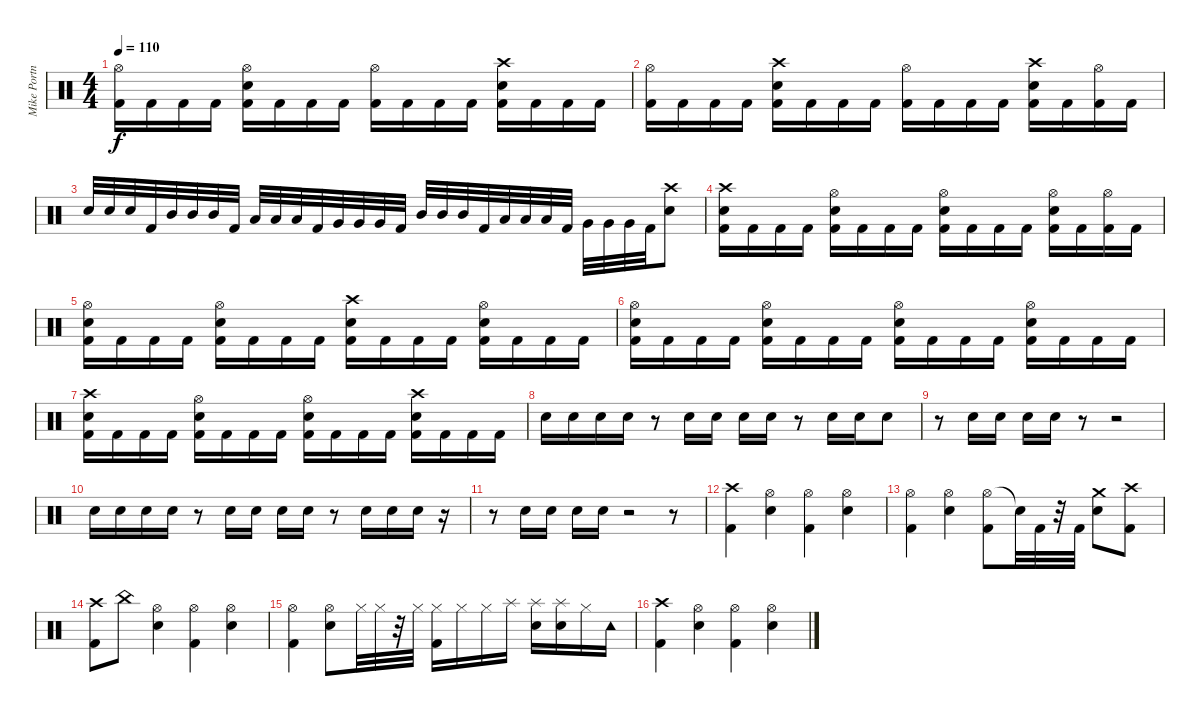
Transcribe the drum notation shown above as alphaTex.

\track ("Mike Portnoy - Drums" "Mike Portn") {instrument percussion}
\staff {score}
\articulation defaults
\ts (4 4)
\tempo 110
\clef neutral
\ks c
("Hi-Hat (open)" "Kick (hit) 2").16{dy f} "Kick (hit) 2".16 "Kick (hit) 2".16 "Kick (hit) 2".16 ("Hi-Hat (open)" "Electric Snare (hit)" "Kick (hit) 2").16 "Kick (hit) 2".16 "Kick (hit) 2".16 "Kick (hit) 2".16 ("Hi-Hat (open)" "Kick (hit) 2").16 "Kick (hit) 2".16 "Kick (hit) 2".16 "Kick (hit) 2".16 ("Crash high (hit)" "Electric Snare (hit)" "Kick (hit) 2").16 "Kick (hit) 2".16 "Kick (hit) 2".16 "Kick (hit) 2".16 |
("Hi-Hat (open)" "Kick (hit) 2").16 "Kick (hit) 2".16 "Kick (hit) 2".16 "Kick (hit) 2".16 ("Crash high (hit)" "Electric Snare (hit)" "Kick (hit) 2").16 "Kick (hit) 2".16 "Kick (hit) 2".16 "Kick (hit) 2".16 ("Hi-Hat (open)" "Kick (hit) 2").16 "Kick (hit) 2".16 "Kick (hit) 2".16 "Kick (hit) 2".16 ("Crash high (hit)" "Electric Snare (hit)" "Kick (hit) 2").16 "Kick (hit) 2".16 ("Hi-Hat (open)" "Kick (hit) 2").16 "Kick (hit) 2".16 |
"Electric Snare (hit)".32 "Electric Snare (hit)".32 "Electric Snare (hit)".32 "Kick (hit) 2".32 "Mid Tom (hit)".32 "Mid Tom (hit)".32 "Mid Tom (hit)".32 "Kick (hit) 2".32 "Low Tom (hit)".32 "Low Tom (hit)".32 "Low Tom (hit)".32 "Kick (hit) 2".32 "Very Low Tom (hit)".32 "Very Low Tom (hit)".32 "Very Low Tom (hit)".32 "Kick (hit) 2".32 "Mid Tom (hit)".32 "Mid Tom (hit)".32 "Mid Tom (hit)".32 "Kick (hit) 2".32 "Low Tom (hit)".32 "Low Tom (hit)".32 "Low Tom (hit)".32 "Kick (hit) 2".32 "Very Low Tom (hit)".32 "Very Low Tom (hit)".32 "Very Low Tom (hit)".32 "Kick (hit) 2".32 ("Crash high (hit)" "Electric Snare (hit)").8 |
("Crash high (hit)" "Electric Snare (hit)" "Kick (hit) 2").16 "Kick (hit) 2".16 "Kick (hit) 2".16 "Kick (hit) 2".16 ("Hi-Hat (open)" "Electric Snare (hit)" "Kick (hit) 2").16 "Kick (hit) 2".16 "Kick (hit) 2".16 "Kick (hit) 2".16 ("Hi-Hat (open)" "Electric Snare (hit)" "Kick (hit) 2").16 "Kick (hit) 2".16 "Kick (hit) 2".16 "Kick (hit) 2".16 ("Hi-Hat (open)" "Electric Snare (hit)" "Kick (hit) 2").16 "Kick (hit) 2".16 ("Hi-Hat (open)" "Kick (hit) 2").16 "Kick (hit) 2".16 |
("Hi-Hat (open)" "Electric Snare (hit)" "Kick (hit) 2").16 "Kick (hit) 2".16 "Kick (hit) 2".16 "Kick (hit) 2".16 ("Hi-Hat (open)" "Electric Snare (hit)" "Kick (hit) 2").16 "Kick (hit) 2".16 "Kick (hit) 2".16 "Kick (hit) 2".16 ("Crash high (hit)" "Electric Snare (hit)" "Kick (hit) 2").16 "Kick (hit) 2".16 "Kick (hit) 2".16 "Kick (hit) 2".16 ("Hi-Hat (open)" "Electric Snare (hit)" "Kick (hit) 2").16 "Kick (hit) 2".16 "Kick (hit) 2".16 "Kick (hit) 2".16 |
("Hi-Hat (open)" "Electric Snare (hit)" "Kick (hit) 2").16 "Kick (hit) 2".16 "Kick (hit) 2".16 "Kick (hit) 2".16 ("Hi-Hat (open)" "Electric Snare (hit)" "Kick (hit) 2").16 "Kick (hit) 2".16 "Kick (hit) 2".16 "Kick (hit) 2".16 ("Hi-Hat (open)" "Electric Snare (hit)" "Kick (hit) 2").16 "Kick (hit) 2".16 "Kick (hit) 2".16 "Kick (hit) 2".16 ("Hi-Hat (open)" "Electric Snare (hit)" "Kick (hit) 2").16 "Kick (hit) 2".16 "Kick (hit) 2".16 "Kick (hit) 2".16 |
("Crash high (hit)" "Electric Snare (hit)" "Kick (hit) 2").16 "Kick (hit) 2".16 "Kick (hit) 2".16 "Kick (hit) 2".16 ("Hi-Hat (open)" "Electric Snare (hit)" "Kick (hit) 2").16 "Kick (hit) 2".16 "Kick (hit) 2".16 "Kick (hit) 2".16 ("Hi-Hat (open)" "Electric Snare (hit)" "Kick (hit) 2").16 "Kick (hit) 2".16 "Kick (hit) 2".16 "Kick (hit) 2".16 ("Crash high (hit)" "Electric Snare (hit)" "Kick (hit) 2").16 "Kick (hit) 2".16 "Kick (hit) 2".16 "Kick (hit) 2".16 |
"Electric Snare (hit)".16 "Electric Snare (hit)".16 "Electric Snare (hit)".16 "Electric Snare (hit)".16 r.8 "Electric Snare (hit)".16 "Electric Snare (hit)".16 "Electric Snare (hit)".16 "Electric Snare (hit)".16 r.8 "Electric Snare (hit)".16 "Electric Snare (hit)".16 "Electric Snare (hit)".8 |
r.8 "Electric Snare (hit)".16 "Electric Snare (hit)".16 "Electric Snare (hit)".16 "Electric Snare (hit)".16 r.8 r.2 |
"Electric Snare (hit)".16 "Electric Snare (hit)".16 "Electric Snare (hit)".16 "Electric Snare (hit)".16 r.8 "Electric Snare (hit)".16 "Electric Snare (hit)".16 "Electric Snare (hit)".16 "Electric Snare (hit)".16 r.8 "Electric Snare (hit)".16 "Electric Snare (hit)".16 "Electric Snare (hit)".16 r.16 |
r.8 "Electric Snare (hit)".16 "Electric Snare (hit)".16 "Electric Snare (hit)".16 "Electric Snare (hit)".16 r.2 r.8 |
("Kick (hit) 2" "Crash high (hit)").4 ("Electric Snare (hit)" "Hi-Hat (open)").4 ("Kick (hit) 2" "Hi-Hat (open)").4 ("Electric Snare (hit)" "Hi-Hat (open)").4 |
("Kick (hit) 2" "Hi-Hat (open)").4 ("Electric Snare (hit)" "Hi-Hat (open)").4 ("Hi-Hat (open)" "Kick (hit) 2").8 "Snare (hit)"{t}.32 "Kick (hit) 2".32 r.32 "Kick (hit) 2".32 ("Electric Snare (hit)" "Crash medium (hit)").8 ("Kick (hit) 2" "Crash high (hit)").8 |
("Crash high (hit)" "Kick (hit) 2").8 "China (hit)".8 ("Electric Snare (hit)" "Hi-Hat (open)").4 ("Kick (hit) 2" "Hi-Hat (open)").4 ("Electric Snare (hit)" "Hi-Hat (open)").4 |
("Kick (hit) 2" "Hi-Hat (open)").4 ("Electric Snare (hit)" "Hi-Hat (open)").8 "Hi-Hat (closed)".32 "Hi-Hat (closed)".32 r.32 "Hi-Hat (closed)".32 ("Kick (hit) 2" "Hi-Hat (closed)").16 "Hi-Hat (closed)".16 "Hi-Hat (closed)".16 "Splash (hit)".16 ("Splash (hit)" "Electric Snare (hit)").16 ("Electric Snare (hit)" "Splash (hit)").16 "Hi-Hat (closed)".16 "Tambourine (hit)".16 |
("Crash high (hit)" "Kick (hit) 2").4 ("Electric Snare (hit)" "Hi-Hat (open)").4 ("Kick (hit) 2" "Hi-Hat (open)").4 ("Electric Snare (hit)" "Hi-Hat (open)").4
